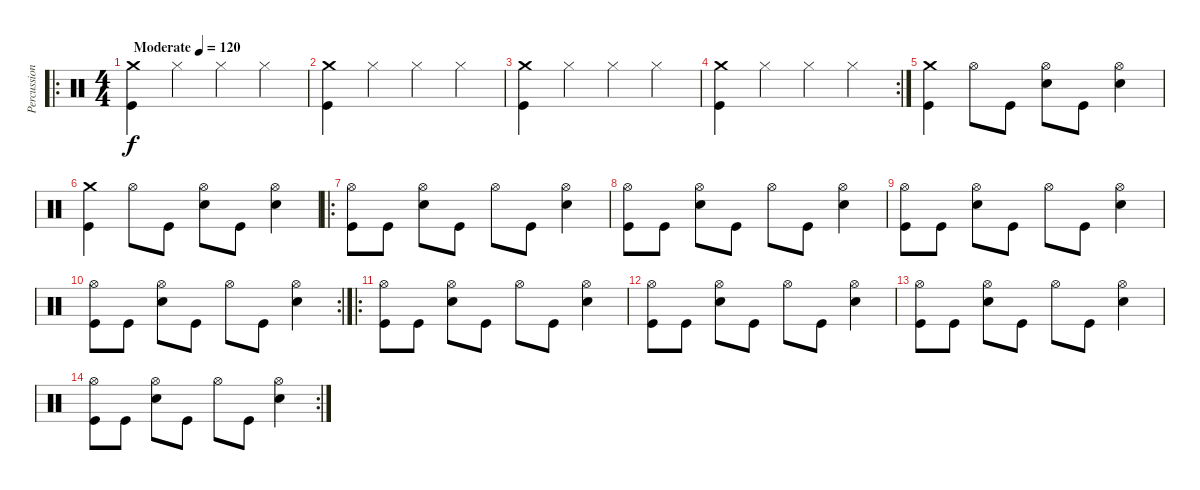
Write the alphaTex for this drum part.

\track ("Percussion" "Percussion") {instrument percussion}
\staff {score}
\articulation defaults
\ro
\ts (4 4)
\tempo (120 "Moderate")
\clef neutral
\ks c
("Crash medium (hit)" "Kick (hit)").4{dy f} "Hi-Hat (closed)".4 "Hi-Hat (closed)".4 "Hi-Hat (closed)".4 |
("Crash medium (hit)" "Kick (hit)").4 "Hi-Hat (closed)".4 "Hi-Hat (closed)".4 "Hi-Hat (closed)".4 |
("Crash medium (hit)" "Kick (hit)").4 "Hi-Hat (closed)".4 "Hi-Hat (closed)".4 "Hi-Hat (closed)".4 |
\rc 2
("Crash medium (hit)" "Kick (hit)").4 "Hi-Hat (closed)".4 "Hi-Hat (closed)".4 "Hi-Hat (closed)".4 |
("Crash medium (hit)" "Kick (hit)").4 "Hi-Hat (open)".8 "Kick (hit)".8 ("Hi-Hat (open)" "Snare (hit) 2").8 "Kick (hit)".8 ("Hi-Hat (open)" "Snare (hit) 2").4 |
("Crash medium (hit)" "Kick (hit)").4 "Hi-Hat (open)".8 "Kick (hit)".8 ("Hi-Hat (open)" "Snare (hit) 2").8 "Kick (hit)".8 ("Hi-Hat (open)" "Snare (hit) 2").4 |
\ro
("Hi-Hat (open)" "Kick (hit)").8 "Kick (hit)".8 ("Hi-Hat (open)" "Snare (hit) 2").8 "Kick (hit)".8 "Hi-Hat (open)".8 "Kick (hit)".8 ("Hi-Hat (open)" "Snare (hit) 2").4 |
("Hi-Hat (open)" "Kick (hit)").8 "Kick (hit)".8 ("Hi-Hat (open)" "Snare (hit) 2").8 "Kick (hit)".8 "Hi-Hat (open)".8 "Kick (hit)".8 ("Hi-Hat (open)" "Snare (hit) 2").4 |
("Hi-Hat (open)" "Kick (hit)").8 "Kick (hit)".8 ("Hi-Hat (open)" "Snare (hit) 2").8 "Kick (hit)".8 "Hi-Hat (open)".8 "Kick (hit)".8 ("Hi-Hat (open)" "Snare (hit) 2").4 |
\rc 2
("Hi-Hat (open)" "Kick (hit)").8 "Kick (hit)".8 ("Hi-Hat (open)" "Snare (hit) 2").8 "Kick (hit)".8 "Hi-Hat (open)".8 "Kick (hit)".8 ("Hi-Hat (open)" "Snare (hit) 2").4 |
\ro
("Hi-Hat (open)" "Kick (hit)").8 "Kick (hit)".8 ("Hi-Hat (open)" "Snare (hit) 2").8 "Kick (hit)".8 "Hi-Hat (open)".8 "Kick (hit)".8 ("Hi-Hat (open)" "Snare (hit) 2").4 |
("Hi-Hat (open)" "Kick (hit)").8 "Kick (hit)".8 ("Hi-Hat (open)" "Snare (hit) 2").8 "Kick (hit)".8 "Hi-Hat (open)".8 "Kick (hit)".8 ("Hi-Hat (open)" "Snare (hit) 2").4 |
("Hi-Hat (open)" "Kick (hit)").8 "Kick (hit)".8 ("Hi-Hat (open)" "Snare (hit) 2").8 "Kick (hit)".8 "Hi-Hat (open)".8 "Kick (hit)".8 ("Hi-Hat (open)" "Snare (hit) 2").4 |
\rc 2
("Hi-Hat (open)" "Kick (hit)").8 "Kick (hit)".8 ("Hi-Hat (open)" "Snare (hit) 2").8 "Kick (hit)".8 "Hi-Hat (open)".8 "Kick (hit)".8 ("Hi-Hat (open)" "Snare (hit) 2").4
